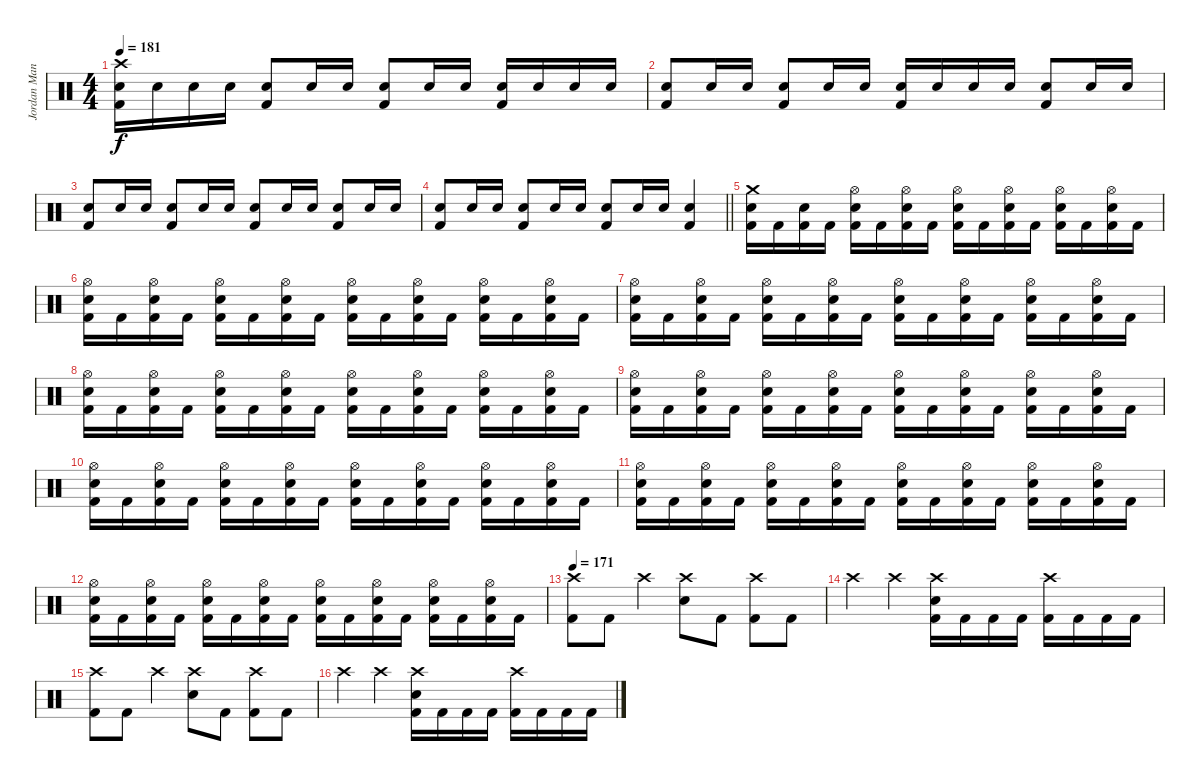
\track ("Jordan Mancino" "Jordan Man") {instrument percussion}
\staff {score}
\articulation defaults
\ts (4 4)
\tempo 181
\clef neutral
\ks c
("Crash high (hit)" "Electric Snare (hit)" "Kick (hit) 2").16{dy f} "Electric Snare (hit)".16 "Electric Snare (hit)".16 "Electric Snare (hit)".16 ("Electric Snare (hit)" "Kick (hit) 2").8 "Electric Snare (hit)".16 "Electric Snare (hit)".16 ("Electric Snare (hit)" "Kick (hit) 2").8 "Electric Snare (hit)".16 "Electric Snare (hit)".16 ("Electric Snare (hit)" "Kick (hit) 2").16 "Electric Snare (hit)".16 "Electric Snare (hit)".16 "Electric Snare (hit)".16 |
("Electric Snare (hit)" "Kick (hit) 2").8 "Electric Snare (hit)".16 "Electric Snare (hit)".16 ("Electric Snare (hit)" "Kick (hit) 2").8 "Electric Snare (hit)".16 "Electric Snare (hit)".16 ("Electric Snare (hit)" "Kick (hit) 2").16 "Electric Snare (hit)".16 "Electric Snare (hit)".16 "Electric Snare (hit)".16 ("Electric Snare (hit)" "Kick (hit) 2").8 "Electric Snare (hit)".16 "Electric Snare (hit)".16 |
("Electric Snare (hit)" "Kick (hit) 2").8 "Electric Snare (hit)".16 "Electric Snare (hit)".16 ("Electric Snare (hit)" "Kick (hit) 2").8 "Electric Snare (hit)".16 "Electric Snare (hit)".16 ("Electric Snare (hit)" "Kick (hit) 2").8 "Electric Snare (hit)".16 "Electric Snare (hit)".16 ("Electric Snare (hit)" "Kick (hit) 2").8 "Electric Snare (hit)".16 "Electric Snare (hit)".16 |
\barLineRight lightlight
("Electric Snare (hit)" "Kick (hit) 2").8 "Electric Snare (hit)".16 "Electric Snare (hit)".16 ("Electric Snare (hit)" "Kick (hit) 2").8 "Electric Snare (hit)".16 "Electric Snare (hit)".16 ("Electric Snare (hit)" "Kick (hit) 2").8 "Electric Snare (hit)".16 "Electric Snare (hit)".16 ("Electric Snare (hit)" "Kick (hit) 2").4 |
\section ("" "")
("Crash medium (hit)" "Electric Snare (hit)" "Kick (hit) 2").16 "Kick (hit) 2".16 ("Electric Snare (hit)" "Kick (hit) 2").16 "Kick (hit) 2".16 ("Hi-Hat (open)" "Electric Snare (hit)" "Kick (hit) 2").16 "Kick (hit) 2".16 ("Hi-Hat (open)" "Electric Snare (hit)" "Kick (hit) 2").16 "Kick (hit) 2".16 ("Hi-Hat (open)" "Electric Snare (hit)" "Kick (hit) 2").16 "Kick (hit) 2".16 ("Hi-Hat (open)" "Electric Snare (hit)" "Kick (hit) 2").16 "Kick (hit) 2".16 ("Hi-Hat (open)" "Electric Snare (hit)" "Kick (hit) 2").16 "Kick (hit) 2".16 ("Hi-Hat (open)" "Electric Snare (hit)" "Kick (hit) 2").16 "Kick (hit) 2".16 |
("Hi-Hat (open)" "Electric Snare (hit)" "Kick (hit) 2").16 "Kick (hit) 2".16 ("Hi-Hat (open)" "Electric Snare (hit)" "Kick (hit) 2").16 "Kick (hit) 2".16 ("Hi-Hat (open)" "Electric Snare (hit)" "Kick (hit) 2").16 "Kick (hit) 2".16 ("Hi-Hat (open)" "Electric Snare (hit)" "Kick (hit) 2").16 "Kick (hit) 2".16 ("Hi-Hat (open)" "Electric Snare (hit)" "Kick (hit) 2").16 "Kick (hit) 2".16 ("Hi-Hat (open)" "Electric Snare (hit)" "Kick (hit) 2").16 "Kick (hit) 2".16 ("Hi-Hat (open)" "Electric Snare (hit)" "Kick (hit) 2").16 "Kick (hit) 2".16 ("Hi-Hat (open)" "Electric Snare (hit)" "Kick (hit) 2").16 "Kick (hit) 2".16 |
("Hi-Hat (open)" "Electric Snare (hit)" "Kick (hit) 2").16 "Kick (hit) 2".16 ("Hi-Hat (open)" "Electric Snare (hit)" "Kick (hit) 2").16 "Kick (hit) 2".16 ("Hi-Hat (open)" "Electric Snare (hit)" "Kick (hit) 2").16 "Kick (hit) 2".16 ("Hi-Hat (open)" "Electric Snare (hit)" "Kick (hit) 2").16 "Kick (hit) 2".16 ("Hi-Hat (open)" "Electric Snare (hit)" "Kick (hit) 2").16 "Kick (hit) 2".16 ("Hi-Hat (open)" "Electric Snare (hit)" "Kick (hit) 2").16 "Kick (hit) 2".16 ("Hi-Hat (open)" "Electric Snare (hit)" "Kick (hit) 2").16 "Kick (hit) 2".16 ("Hi-Hat (open)" "Electric Snare (hit)" "Kick (hit) 2").16 "Kick (hit) 2".16 |
("Hi-Hat (open)" "Electric Snare (hit)" "Kick (hit) 2").16 "Kick (hit) 2".16 ("Hi-Hat (open)" "Electric Snare (hit)" "Kick (hit) 2").16 "Kick (hit) 2".16 ("Hi-Hat (open)" "Electric Snare (hit)" "Kick (hit) 2").16 "Kick (hit) 2".16 ("Hi-Hat (open)" "Electric Snare (hit)" "Kick (hit) 2").16 "Kick (hit) 2".16 ("Hi-Hat (open)" "Electric Snare (hit)" "Kick (hit) 2").16 "Kick (hit) 2".16 ("Hi-Hat (open)" "Electric Snare (hit)" "Kick (hit) 2").16 "Kick (hit) 2".16 ("Hi-Hat (open)" "Electric Snare (hit)" "Kick (hit) 2").16 "Kick (hit) 2".16 ("Hi-Hat (open)" "Electric Snare (hit)" "Kick (hit) 2").16 "Kick (hit) 2".16 |
("Hi-Hat (open)" "Electric Snare (hit)" "Kick (hit) 2").16 "Kick (hit) 2".16 ("Hi-Hat (open)" "Electric Snare (hit)" "Kick (hit) 2").16 "Kick (hit) 2".16 ("Hi-Hat (open)" "Electric Snare (hit)" "Kick (hit) 2").16 "Kick (hit) 2".16 ("Hi-Hat (open)" "Electric Snare (hit)" "Kick (hit) 2").16 "Kick (hit) 2".16 ("Hi-Hat (open)" "Electric Snare (hit)" "Kick (hit) 2").16 "Kick (hit) 2".16 ("Hi-Hat (open)" "Electric Snare (hit)" "Kick (hit) 2").16 "Kick (hit) 2".16 ("Hi-Hat (open)" "Electric Snare (hit)" "Kick (hit) 2").16 "Kick (hit) 2".16 ("Hi-Hat (open)" "Electric Snare (hit)" "Kick (hit) 2").16 "Kick (hit) 2".16 |
("Hi-Hat (open)" "Electric Snare (hit)" "Kick (hit) 2").16 "Kick (hit) 2".16 ("Hi-Hat (open)" "Electric Snare (hit)" "Kick (hit) 2").16 "Kick (hit) 2".16 ("Hi-Hat (open)" "Electric Snare (hit)" "Kick (hit) 2").16 "Kick (hit) 2".16 ("Hi-Hat (open)" "Electric Snare (hit)" "Kick (hit) 2").16 "Kick (hit) 2".16 ("Hi-Hat (open)" "Electric Snare (hit)" "Kick (hit) 2").16 "Kick (hit) 2".16 ("Hi-Hat (open)" "Electric Snare (hit)" "Kick (hit) 2").16 "Kick (hit) 2".16 ("Hi-Hat (open)" "Electric Snare (hit)" "Kick (hit) 2").16 "Kick (hit) 2".16 ("Hi-Hat (open)" "Electric Snare (hit)" "Kick (hit) 2").16 "Kick (hit) 2".16 |
("Hi-Hat (open)" "Electric Snare (hit)" "Kick (hit) 2").16 "Kick (hit) 2".16 ("Hi-Hat (open)" "Electric Snare (hit)" "Kick (hit) 2").16 "Kick (hit) 2".16 ("Hi-Hat (open)" "Electric Snare (hit)" "Kick (hit) 2").16 "Kick (hit) 2".16 ("Hi-Hat (open)" "Electric Snare (hit)" "Kick (hit) 2").16 "Kick (hit) 2".16 ("Hi-Hat (open)" "Electric Snare (hit)" "Kick (hit) 2").16 "Kick (hit) 2".16 ("Hi-Hat (open)" "Electric Snare (hit)" "Kick (hit) 2").16 "Kick (hit) 2".16 ("Hi-Hat (open)" "Electric Snare (hit)" "Kick (hit) 2").16 "Kick (hit) 2".16 ("Hi-Hat (open)" "Electric Snare (hit)" "Kick (hit) 2").16 "Kick (hit) 2".16 |
("Hi-Hat (open)" "Electric Snare (hit)" "Kick (hit) 2").16 "Kick (hit) 2".16 ("Hi-Hat (open)" "Electric Snare (hit)" "Kick (hit) 2").16 "Kick (hit) 2".16 ("Hi-Hat (open)" "Electric Snare (hit)" "Kick (hit) 2").16 "Kick (hit) 2".16 ("Hi-Hat (open)" "Electric Snare (hit)" "Kick (hit) 2").16 "Kick (hit) 2".16 ("Hi-Hat (open)" "Electric Snare (hit)" "Kick (hit) 2").16 "Kick (hit) 2".16 ("Hi-Hat (open)" "Electric Snare (hit)" "Kick (hit) 2").16 "Kick (hit) 2".16 ("Hi-Hat (open)" "Electric Snare (hit)" "Kick (hit) 2").16 "Kick (hit) 2".16 ("Hi-Hat (open)" "Electric Snare (hit)" "Kick (hit) 2").16 "Kick (hit) 2".16 |
\tempo 171
("Crash high (hit)" "Kick (hit) 2").8 "Kick (hit) 2".8 "Crash high (hit)".4 ("Crash high (hit)" "Electric Snare (hit)").8 "Kick (hit) 2".8 ("Crash high (hit)" "Kick (hit) 2").8 "Kick (hit) 2".8 |
"Crash high (hit)".4 "Crash high (hit)".4 ("Crash high (hit)" "Electric Snare (hit)" "Kick (hit) 2").16 "Kick (hit) 2".16 "Kick (hit) 2".16 "Kick (hit) 2".16 ("Crash high (hit)" "Kick (hit) 2").16 "Kick (hit) 2".16 "Kick (hit) 2".16 "Kick (hit) 2".16 |
("Crash high (hit)" "Kick (hit) 2").8 "Kick (hit) 2".8 "Crash high (hit)".4 ("Crash high (hit)" "Electric Snare (hit)").8 "Kick (hit) 2".8 ("Crash high (hit)" "Kick (hit) 2").8 "Kick (hit) 2".8 |
"Crash high (hit)".4 "Crash high (hit)".4 ("Crash high (hit)" "Electric Snare (hit)" "Kick (hit) 2").16 "Kick (hit) 2".16 "Kick (hit) 2".16 "Kick (hit) 2".16 ("Crash high (hit)" "Kick (hit) 2").16 "Kick (hit) 2".16 "Kick (hit) 2".16 "Kick (hit) 2".16
